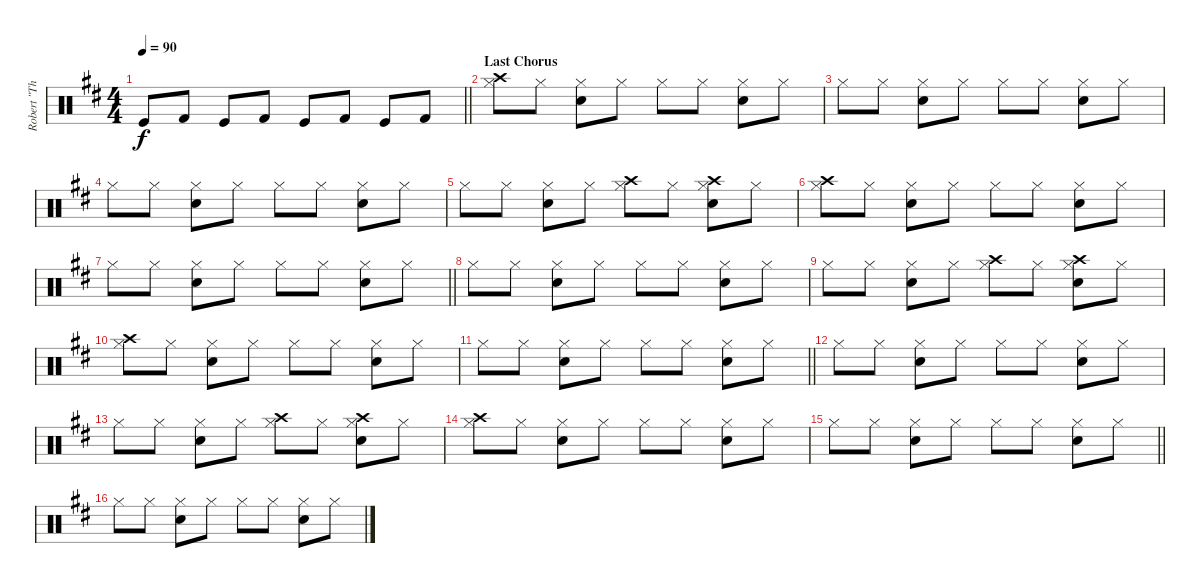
\track ("Robert \"The Visual Timekeeper\" Sweet [Dr" "Robert \"Th") {instrument percussion}
\staff {score}
\articulation defaults
\ts (4 4)
\tempo 90
\clef neutral
\barLineRight lightlight
\ks d "Kick (hit)".8{dy f} "Kick (hit) 2".8 "Kick (hit)".8 "Kick (hit) 2".8 "Kick (hit)".8 "Kick (hit) 2".8 "Kick (hit)".8 "Kick (hit) 2".8
|
\section ("" "Last Chorus")
("Crash high (hit)" "Hi-Hat (closed)").8 "Hi-Hat (closed)".8 ("Hi-Hat (closed)" "Snare (hit) 2").8 "Hi-Hat (closed)".8 "Hi-Hat (closed)".8 "Hi-Hat (closed)".8 ("Hi-Hat (closed)" "Snare (hit) 2").8 "Hi-Hat (closed)".8 |
"Hi-Hat (closed)".8 "Hi-Hat (closed)".8 ("Hi-Hat (closed)" "Snare (hit) 2").8 "Hi-Hat (closed)".8 "Hi-Hat (closed)".8 "Hi-Hat (closed)".8 ("Hi-Hat (closed)" "Snare (hit) 2").8 "Hi-Hat (closed)".8 |
"Hi-Hat (closed)".8 "Hi-Hat (closed)".8 ("Hi-Hat (closed)" "Snare (hit) 2").8 "Hi-Hat (closed)".8 "Hi-Hat (closed)".8 "Hi-Hat (closed)".8 ("Hi-Hat (closed)" "Snare (hit) 2").8 "Hi-Hat (closed)".8 |
"Hi-Hat (closed)".8 "Hi-Hat (closed)".8 ("Hi-Hat (closed)" "Snare (hit) 2").8 "Hi-Hat (closed)".8 ("Hi-Hat (closed)" "Crash high (hit)").8 "Hi-Hat (closed)".8 ("Hi-Hat (closed)" "Snare (hit) 2" "Crash high (hit)").8 "Hi-Hat (closed)".8 |
("Hi-Hat (closed)" "Crash high (hit)").8 "Hi-Hat (closed)".8 ("Hi-Hat (closed)" "Snare (hit) 2").8 "Hi-Hat (closed)".8 "Hi-Hat (closed)".8 "Hi-Hat (closed)".8 ("Hi-Hat (closed)" "Snare (hit) 2").8 "Hi-Hat (closed)".8 |
\barLineRight lightlight "Hi-Hat (closed)".8 "Hi-Hat (closed)".8
("Hi-Hat (closed)" "Snare (hit) 2").8 "Hi-Hat (closed)".8 "Hi-Hat (closed)".8 "Hi-Hat (closed)".8 ("Hi-Hat (closed)" "Snare (hit) 2").8 "Hi-Hat (closed)".8 |
"Hi-Hat (closed)".8 "Hi-Hat (closed)".8 ("Hi-Hat (closed)" "Snare (hit) 2").8 "Hi-Hat (closed)".8 "Hi-Hat (closed)".8 "Hi-Hat (closed)".8 ("Hi-Hat (closed)" "Snare (hit) 2").8 "Hi-Hat (closed)".8 |
"Hi-Hat (closed)".8 "Hi-Hat (closed)".8 ("Hi-Hat (closed)" "Snare (hit) 2").8 "Hi-Hat (closed)".8 ("Hi-Hat (closed)" "Crash high (hit)").8 "Hi-Hat (closed)".8 ("Hi-Hat (closed)" "Snare (hit) 2" "Crash high (hit)").8 "Hi-Hat (closed)".8 |
("Hi-Hat (closed)" "Crash high (hit)").8 "Hi-Hat (closed)".8 ("Hi-Hat (closed)" "Snare (hit) 2").8 "Hi-Hat (closed)".8 "Hi-Hat (closed)".8 "Hi-Hat (closed)".8 ("Hi-Hat (closed)" "Snare (hit) 2").8 "Hi-Hat (closed)".8 |
\barLineRight lightlight "Hi-Hat (closed)".8 "Hi-Hat (closed)".8
("Hi-Hat (closed)" "Snare (hit) 2").8 "Hi-Hat (closed)".8 "Hi-Hat (closed)".8 "Hi-Hat (closed)".8 ("Hi-Hat (closed)" "Snare (hit) 2").8 "Hi-Hat (closed)".8 |
"Hi-Hat (closed)".8 "Hi-Hat (closed)".8 ("Hi-Hat (closed)" "Snare (hit) 2").8 "Hi-Hat (closed)".8 "Hi-Hat (closed)".8 "Hi-Hat (closed)".8 ("Hi-Hat (closed)" "Snare (hit) 2").8 "Hi-Hat (closed)".8 |
"Hi-Hat (closed)".8 "Hi-Hat (closed)".8 ("Hi-Hat (closed)" "Snare (hit) 2").8 "Hi-Hat (closed)".8 ("Hi-Hat (closed)" "Crash high (hit)").8 "Hi-Hat (closed)".8 ("Hi-Hat (closed)" "Snare (hit) 2" "Crash high (hit)").8 "Hi-Hat (closed)".8 |
("Hi-Hat (closed)" "Crash high (hit)").8 "Hi-Hat (closed)".8 ("Hi-Hat (closed)" "Snare (hit) 2").8 "Hi-Hat (closed)".8 "Hi-Hat (closed)".8 "Hi-Hat (closed)".8 ("Hi-Hat (closed)" "Snare (hit) 2").8 "Hi-Hat (closed)".8 |
\barLineRight lightlight "Hi-Hat (closed)".8 "Hi-Hat (closed)".8
("Hi-Hat (closed)" "Snare (hit) 2").8 "Hi-Hat (closed)".8 "Hi-Hat (closed)".8 "Hi-Hat (closed)".8 ("Hi-Hat (closed)" "Snare (hit) 2").8 "Hi-Hat (closed)".8 |
"Hi-Hat (closed)".8 "Hi-Hat (closed)".8 ("Hi-Hat (closed)" "Snare (hit) 2").8 "Hi-Hat (closed)".8 "Hi-Hat (closed)".8 "Hi-Hat (closed)".8 ("Hi-Hat (closed)" "Snare (hit) 2").8 "Hi-Hat (closed)".8
